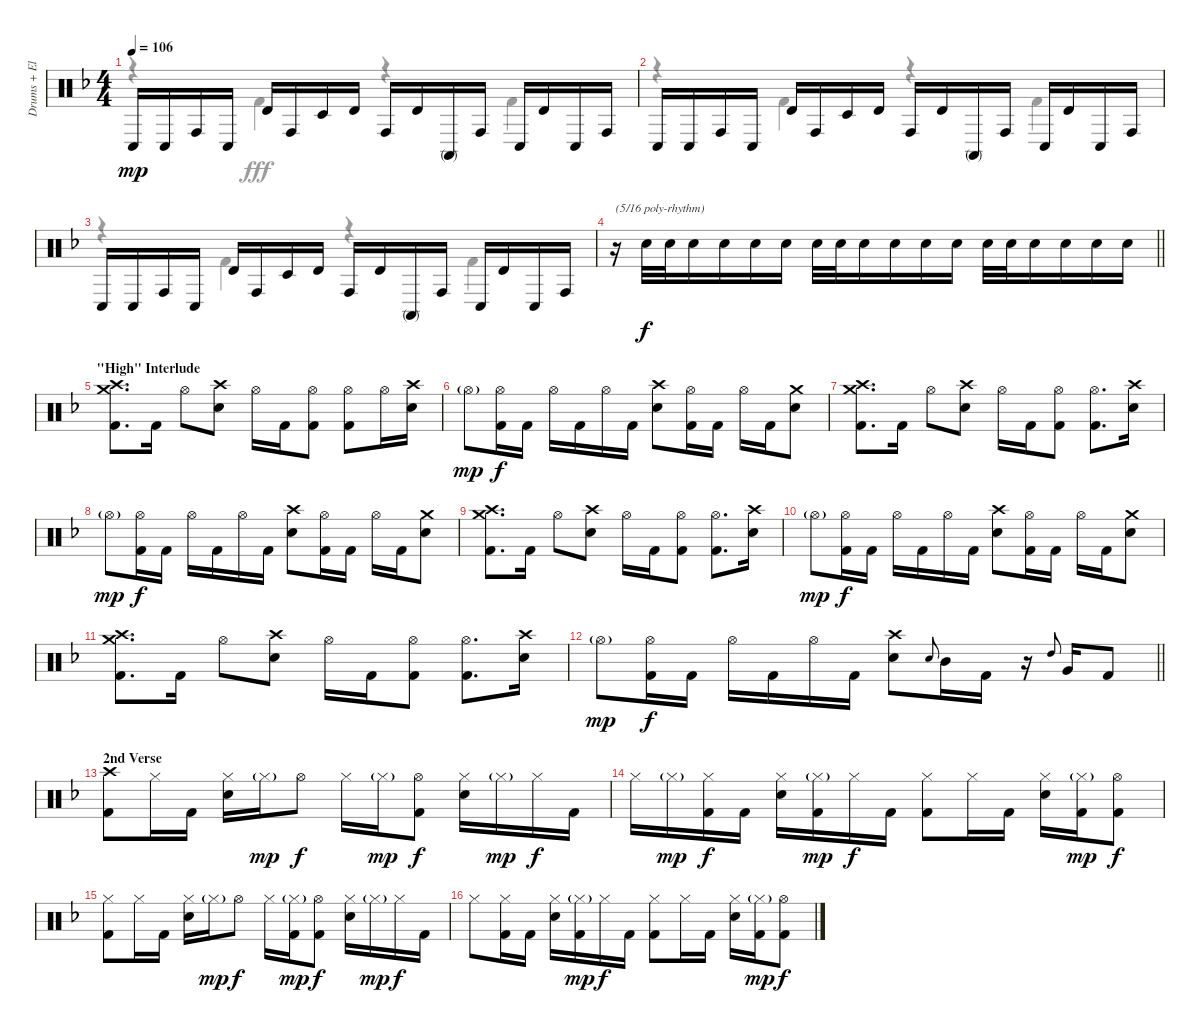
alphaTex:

\track ("Drums + Electronic drum pads" "Drums + El") {instrument percussion}
\staff {score}
\articulation defaults
\voice
\ts (4 4)
\tempo 106
\clef neutral
\ks dminor "Conga low (hit)".16{dy mp} "Conga low (hit)".16 "Conga high (hit)".16 "Conga low (hit)".16 "Timbale high (hit)".16 "Conga high (hit)".16 "Timbale low (hit)".16 "Timbale high (hit)".16 "Conga high (hit)".16 "Timbale high (hit)".16 "Conga high (mute)".16 "Conga high (hit)".16 "Conga low (hit)".16 "Timbale high (hit)".16 "Conga low (hit)".16 "Conga high (hit)".16
|
"Conga low (hit)".16 "Conga low (hit)".16 "Conga high (hit)".16 "Conga low (hit)".16 "Timbale high (hit)".16 "Conga high (hit)".16 "Timbale low (hit)".16 "Timbale high (hit)".16 "Conga high (hit)".16 "Timbale high (hit)".16 "Conga high (mute)".16 "Conga high (hit)".16 "Conga low (hit)".16 "Timbale high (hit)".16 "Conga low (hit)".16 "Conga high (hit)".16 |
"Conga low (hit)".16 "Conga low (hit)".16 "Conga high (hit)".16 "Conga low (hit)".16 "Timbale high (hit)".16 "Conga high (hit)".16 "Timbale low (hit)".16 "Timbale high (hit)".16 "Conga high (hit)".16 "Timbale high (hit)".16 "Conga high (mute)".16 "Conga high (hit)".16 "Conga low (hit)".16 "Timbale high (hit)".16 "Conga low (hit)".16 "Conga high (hit)".16 |
\barLineRight lightlight
r.16{txt "(5/16 poly-rhythm)"} "Snare (hit) 2".32{dy f} "Snare (hit) 2".32 "Snare (hit) 2".16 "Snare (hit) 2".16{beam merge} "Snare (hit) 2".16 "Snare (hit) 2".16{beam split} "Snare (hit) 2".32 "Snare (hit) 2".32 "Snare (hit) 2".16{beam merge} "Snare (hit) 2".16 "Snare (hit) 2".16 "Snare (hit) 2".16{beam split} "Snare (hit) 2".32 "Snare (hit) 2".32{beam merge} "Snare (hit) 2".16 "Snare (hit) 2".16 "Snare (hit) 2".16 "Snare (hit) 2".16 |
\section ("" "\"High\" Interlude")
("Crash medium (hit)" "Crash high (hit)" "Kick (hit) 2").8{d} "Kick (hit) 2".16 "Hi-Hat (open)".8 ("Crash high (hit)" "Snare (hit) 2").8 "Hi-Hat (open)".16 "Kick (hit) 2".16 ("Hi-Hat (open)" "Kick (hit) 2").8 ("Hi-Hat (open)" "Kick (hit) 2").8 "Hi-Hat (open)".16 ("Crash high (hit)" "Snare (hit) 2").16 |
"Hi-Hat (open)"{g}.8{dy mp} ("Hi-Hat (open)" "Kick (hit) 2").16{dy f} "Kick (hit) 2".16 "Hi-Hat (open)".16 "Kick (hit) 2".16 "Hi-Hat (open)".16 "Kick (hit) 2".16 ("Crash high (hit)" "Snare (hit) 2").8 ("Hi-Hat (open)" "Kick (hit) 2").16 "Kick (hit) 2".16 "Hi-Hat (open)".16 "Kick (hit) 2".16 ("Crash medium (hit)" "Snare (hit) 2").8 |
("Crash medium (hit)" "Crash high (hit)" "Kick (hit) 2").8{d} "Kick (hit) 2".16 "Hi-Hat (open)".8 ("Crash high (hit)" "Snare (hit) 2").8 "Hi-Hat (open)".16 "Kick (hit) 2".16 ("Hi-Hat (open)" "Kick (hit) 2").8 ("Hi-Hat (open)" "Kick (hit) 2").8{d} ("Crash high (hit)" "Snare (hit) 2").16 |
"Hi-Hat (open)"{g}.8{dy mp} ("Hi-Hat (open)" "Kick (hit) 2").16{dy f} "Kick (hit) 2".16 "Hi-Hat (open)".16 "Kick (hit) 2".16 "Hi-Hat (open)".16 "Kick (hit) 2".16 ("Crash high (hit)" "Snare (hit) 2").8 ("Hi-Hat (open)" "Kick (hit) 2").16 "Kick (hit) 2".16 "Hi-Hat (open)".16 "Kick (hit) 2".16 ("Crash medium (hit)" "Snare (hit) 2").8 |
("Crash medium (hit)" "Crash high (hit)" "Kick (hit) 2").8{d} "Kick (hit) 2".16 "Hi-Hat (open)".8 ("Crash high (hit)" "Snare (hit) 2").8 "Hi-Hat (open)".16 "Kick (hit) 2".16 ("Hi-Hat (open)" "Kick (hit) 2").8 ("Hi-Hat (open)" "Kick (hit) 2").8{d} ("Crash high (hit)" "Snare (hit) 2").16 |
"Hi-Hat (open)"{g}.8{dy mp} ("Hi-Hat (open)" "Kick (hit) 2").16{dy f} "Kick (hit) 2".16 "Hi-Hat (open)".16 "Kick (hit) 2".16 "Hi-Hat (open)".16 "Kick (hit) 2".16 ("Crash high (hit)" "Snare (hit) 2").8 ("Hi-Hat (open)" "Kick (hit) 2").16 "Kick (hit) 2".16 "Hi-Hat (open)".16 "Kick (hit) 2".16 ("Crash medium (hit)" "Snare (hit) 2").8 |
("Crash medium (hit)" "Crash high (hit)" "Kick (hit) 2").8{d} "Kick (hit) 2".16 "Hi-Hat (open)".8 ("Crash high (hit)" "Snare (hit) 2").8 "Hi-Hat (open)".16 "Kick (hit) 2".16 ("Hi-Hat (open)" "Kick (hit) 2").8 ("Hi-Hat (open)" "Kick (hit) 2").8{d} ("Crash high (hit)" "Snare (hit) 2").16 |
\barLineRight lightlight "Hi-Hat (open)"{g}.8{dy mp}
("Hi-Hat (open)" "Kick (hit) 2").16{dy f} "Kick (hit) 2".16 "Hi-Hat (open)".16 "Kick (hit) 2".16 "Hi-Hat (open)".16 "Kick (hit) 2".16 ("Crash high (hit)" "Snare (hit) 2").8 "Snare (hit) 2".8{gr onbeat} "Mid Tom (hit)".16 "Kick (hit) 2".16 r.16 "High Tom (hit)".8{gr onbeat} "Very Low Tom (hit)".16 "Kick (hit) 2".8 |
\section ("" "2nd Verse")
("Crash high (hit)" "Kick (hit) 2").8 "Hi-Hat (closed)".16 "Kick (hit) 2".16 ("Hi-Hat (closed)" "Snare (hit) 2").16 "Hi-Hat (closed)"{g}.16{dy mp} "Hi-Hat (open)".8{dy f} "Hi-Hat (closed)".16 "Hi-Hat (closed)"{g}.16{dy mp} ("Hi-Hat (open)" "Kick (hit) 2").8{dy f} ("Hi-Hat (closed)" "Snare (hit) 2").16 "Hi-Hat (closed)"{g}.16{dy mp} "Hi-Hat (closed)".16{dy f} "Kick (hit) 2".16 |
"Hi-Hat (closed)".16 "Hi-Hat (closed)"{g}.16{dy mp} ("Hi-Hat (closed)" "Kick (hit) 2").16{dy f} "Kick (hit) 2".16 ("Hi-Hat (closed)" "Snare (hit) 2").16 ("Hi-Hat (closed)"{g} "Kick (hit) 2").16{dy mp} "Hi-Hat (closed)".16{dy f} "Kick (hit) 2".16 ("Hi-Hat (closed)" "Kick (hit) 2").8 "Hi-Hat (closed)".16 "Kick (hit) 2".16 ("Hi-Hat (closed)" "Snare (hit) 2").16 ("Hi-Hat (closed)"{g} "Kick (hit) 2").16{dy mp} ("Hi-Hat (open)" "Kick (hit) 2").8{dy f} |
("Hi-Hat (closed)" "Kick (hit) 2").8 "Hi-Hat (closed)".16 "Kick (hit) 2".16 ("Hi-Hat (closed)" "Snare (hit) 2").16 "Hi-Hat (closed)"{g}.16{dy mp} "Hi-Hat (open)".8{dy f} "Hi-Hat (closed)".16 ("Hi-Hat (closed)"{g} "Kick (hit) 2").16{dy mp} ("Hi-Hat (open)" "Kick (hit) 2").8{dy f} ("Hi-Hat (closed)" "Snare (hit) 2").16 "Hi-Hat (closed)"{g}.16{dy mp} "Hi-Hat (closed)".16{dy f} "Kick (hit) 2".16 |
"Hi-Hat (closed)".8 ("Hi-Hat (closed)" "Kick (hit) 2").16 "Kick (hit) 2".16 ("Hi-Hat (closed)" "Snare (hit) 2").16 ("Hi-Hat (closed)"{g} "Kick (hit) 2").16{dy mp} "Hi-Hat (closed)".16{dy f} "Kick (hit) 2".16 ("Hi-Hat (closed)" "Kick (hit) 2").8 "Hi-Hat (closed)".16 "Kick (hit) 2".16 ("Hi-Hat (closed)" "Snare (hit) 2").16 ("Hi-Hat (closed)"{g} "Kick (hit) 2").16{dy mp} ("Hi-Hat (open)" "Kick (hit) 2").8{dy f}
\voice
\clef neutral
\ottava regular
\simile none
\ks dminor
r.4{dy fff} "Kick (hit) 2".4 r.4 "Kick (hit) 2".4 |
r.4 "Kick (hit) 2".4 r.4 "Kick (hit) 2".4 |
r.4 "Kick (hit) 2".4 r.4 "Kick (hit) 2".4 |
\barLineRight lightlight
|
|
|
|
|
|
|
|
\barLineRight lightlight
|
|
|
|
